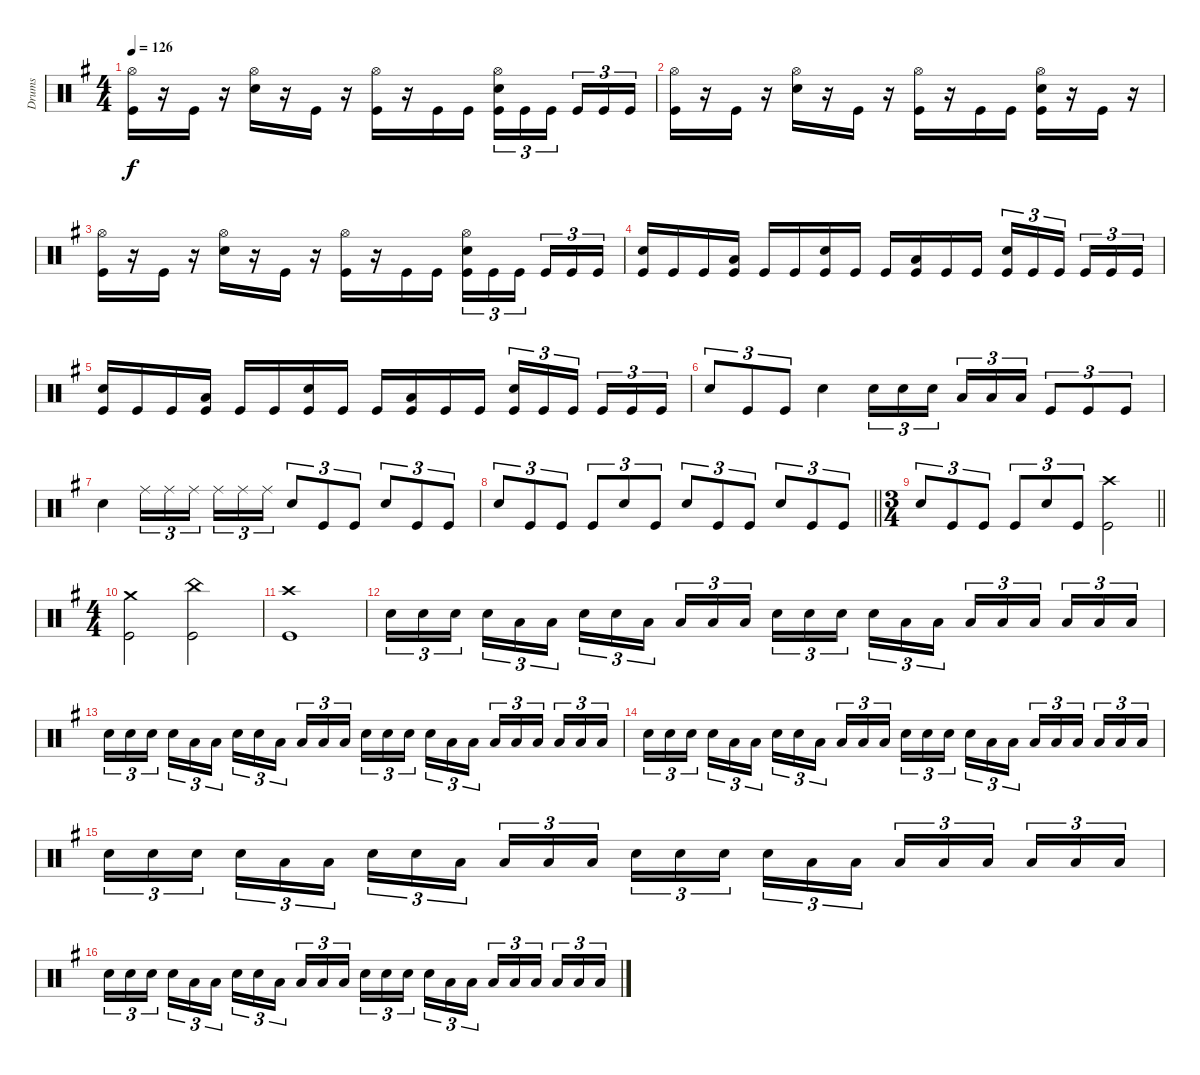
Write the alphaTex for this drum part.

\track ("Drums" "Drums") {instrument percussion}
\staff {score}
\articulation defaults
\ts (4 4)
\tempo 126
\clef neutral
\ks eminor
("Hi-Hat (open)" "Kick (hit)").16{dy f} r.16 "Kick (hit)".16 r.16 ("Hi-Hat (open)" "Snare (hit) 2").16 r.16 "Kick (hit)".16 r.16 ("Hi-Hat (open)" "Kick (hit)").16 r.16 "Kick (hit)".16 "Kick (hit)".16 ("Hi-Hat (open)" "Snare (hit) 2" "Kick (hit)").16{tu (3 2)} "Kick (hit)".16{tu (3 2)} "Kick (hit)".16{tu (3 2) beam splitsecondary} "Kick (hit)".16{tu (3 2)} "Kick (hit)".16{tu (3 2)} "Kick (hit)".16{tu (3 2)} |
("Hi-Hat (open)" "Kick (hit)").16 r.16 "Kick (hit)".16 r.16 ("Hi-Hat (open)" "Snare (hit) 2").16 r.16 "Kick (hit)".16 r.16 ("Hi-Hat (open)" "Kick (hit)").16 r.16 "Kick (hit)".16 "Kick (hit)".16 ("Hi-Hat (open)" "Snare (hit) 2" "Kick (hit)").16 r.16 "Kick (hit)".16 r.16 |
("Hi-Hat (open)" "Kick (hit)").16 r.16 "Kick (hit)".16 r.16 ("Hi-Hat (open)" "Snare (hit) 2").16 r.16 "Kick (hit)".16 r.16 ("Hi-Hat (open)" "Kick (hit)").16 r.16 "Kick (hit)".16 "Kick (hit)".16 ("Hi-Hat (open)" "Snare (hit) 2" "Kick (hit)").16{tu (3 2)} "Kick (hit)".16{tu (3 2)} "Kick (hit)".16{tu (3 2) beam splitsecondary} "Kick (hit)".16{tu (3 2)} "Kick (hit)".16{tu (3 2)} "Kick (hit)".16{tu (3 2)} |
("Snare (hit) 2" "Kick (hit)").16 "Kick (hit)".16 "Kick (hit)".16 ("Low Floor Tom (hit)" "Kick (hit)").16 "Kick (hit)".16 "Kick (hit)".16 ("Snare (hit) 2" "Kick (hit)").16 "Kick (hit)".16 "Kick (hit)".16 ("Low Floor Tom (hit)" "Kick (hit)").16 "Kick (hit)".16 "Kick (hit)".16 ("Snare (hit) 2" "Kick (hit)").16{tu (3 2)} "Kick (hit)".16{tu (3 2)} "Kick (hit)".16{tu (3 2) beam splitsecondary} "Kick (hit)".16{tu (3 2)} "Kick (hit)".16{tu (3 2)} "Kick (hit)".16{tu (3 2)} |
("Snare (hit) 2" "Kick (hit)").16 "Kick (hit)".16 "Kick (hit)".16 ("Low Floor Tom (hit)" "Kick (hit)").16 "Kick (hit)".16 "Kick (hit)".16 ("Snare (hit) 2" "Kick (hit)").16 "Kick (hit)".16 "Kick (hit)".16 ("Low Floor Tom (hit)" "Kick (hit)").16 "Kick (hit)".16 "Kick (hit)".16 ("Snare (hit) 2" "Kick (hit)").16{tu (3 2)} "Kick (hit)".16{tu (3 2)} "Kick (hit)".16{tu (3 2) beam splitsecondary} "Kick (hit)".16{tu (3 2)} "Kick (hit)".16{tu (3 2)} "Kick (hit)".16{tu (3 2)} |
"Snare (hit) 2".8{tu (3 2)} "Kick (hit)".8{tu (3 2)} "Kick (hit)".8{tu (3 2)} "Snare (hit) 2".4 "Snare (hit) 2".16{tu (3 2)} "Snare (hit) 2".16{tu (3 2)} "Snare (hit) 2".16{tu (3 2) beam splitsecondary} "Low Floor Tom (hit)".16{tu (3 2)} "Low Floor Tom (hit)".16{tu (3 2)} "Low Tom (hit)".16{tu (3 2)} "Kick (hit)".8{tu (3 2)} "Kick (hit)".8{tu (3 2)} "Kick (hit)".8{tu (3 2)} |
"Snare (hit) 2".4 "Ride (middle)".16{tu (3 2)} "Ride (middle)".16{tu (3 2)} "Ride (middle)".16{tu (3 2) beam splitsecondary} "Ride (middle)".16{tu (3 2)} "Ride (middle)".16{tu (3 2)} "Ride (middle)".16{tu (3 2)} "Snare (hit) 2".8{tu (3 2)} "Kick (hit)".8{tu (3 2)} "Kick (hit)".8{tu (3 2)} "Snare (hit) 2".8{tu (3 2)} "Kick (hit)".8{tu (3 2)} "Kick (hit)".8{tu (3 2)} |
\barLineRight lightlight "Snare (hit) 2".8{tu (3 2)} "Kick (hit)".8{tu (3 2)} "Kick (hit)".8{tu (3 2)} "Kick (hit)".8{tu (3 2)} "Snare (hit) 2".8{tu (3 2)} "Kick (hit)".8{tu (3 2)} "Snare (hit) 2".8{tu (3 2)} "Kick (hit)".8{tu (3 2)} "Kick (hit)".8{tu (3 2)} "Snare (hit) 2".8{tu (3 2)} "Kick (hit)".8{tu (3 2)} "Kick (hit)".8{tu (3 2)}
|
\ts (3 4)
\barLineRight lightlight "Snare (hit) 2".8{tu (3 2)} "Kick (hit)".8{tu (3 2)} "Kick (hit)".8{tu (3 2)} "Kick (hit)".8{tu (3 2)} "Snare (hit) 2".8{tu (3 2)} "Kick (hit)".8{tu (3 2)}
("Crash high (hit)" "Kick (hit)").2 |
\ts (4 4)
("Crash medium (hit)" "Kick (hit)").2 ("China (hit)" "Kick (hit)").2 |
("Crash high (hit)" "Kick (hit)").1 |
"Snare (hit) 2".16{tu (3 2)} "Snare (hit) 2".16{tu (3 2)} "Snare (hit) 2".16{tu (3 2) beam splitsecondary} "Snare (hit) 2".16{tu (3 2)} "Low Floor Tom (hit)".16{tu (3 2)} "Low Floor Tom (hit)".16{tu (3 2)} "Snare (hit) 2".16{tu (3 2)} "Snare (hit) 2".16{tu (3 2)} "Low Tom (hit)".16{tu (3 2) beam splitsecondary} "Low Tom (hit)".16{tu (3 2)} "Low Tom (hit)".16{tu (3 2)} "Low Floor Tom (hit)".16{tu (3 2)} "Snare (hit) 2".16{tu (3 2)} "Snare (hit) 2".16{tu (3 2)} "Snare (hit) 2".16{tu (3 2) beam splitsecondary} "Snare (hit) 2".16{tu (3 2)} "Low Tom (hit)".16{tu (3 2)} "Low Tom (hit)".16{tu (3 2)} "Low Floor Tom (hit)".16{tu (3 2)} "Low Floor Tom (hit)".16{tu (3 2)} "Low Floor Tom (hit)".16{tu (3 2) beam splitsecondary} "Low Floor Tom (hit)".16{tu (3 2)} "Low Floor Tom (hit)".16{tu (3 2)} "Low Floor Tom (hit)".16{tu (3 2)} |
"Snare (hit) 2".16{tu (3 2)} "Snare (hit) 2".16{tu (3 2)} "Snare (hit) 2".16{tu (3 2) beam splitsecondary} "Snare (hit) 2".16{tu (3 2)} "Low Floor Tom (hit)".16{tu (3 2)} "Low Floor Tom (hit)".16{tu (3 2)} "Snare (hit) 2".16{tu (3 2)} "Snare (hit) 2".16{tu (3 2)} "Low Tom (hit)".16{tu (3 2) beam splitsecondary} "Low Tom (hit)".16{tu (3 2)} "Low Tom (hit)".16{tu (3 2)} "Low Floor Tom (hit)".16{tu (3 2)} "Snare (hit) 2".16{tu (3 2)} "Snare (hit) 2".16{tu (3 2)} "Snare (hit) 2".16{tu (3 2) beam splitsecondary} "Snare (hit) 2".16{tu (3 2)} "Low Tom (hit)".16{tu (3 2)} "Low Tom (hit)".16{tu (3 2)} "Low Floor Tom (hit)".16{tu (3 2)} "Low Floor Tom (hit)".16{tu (3 2)} "Low Floor Tom (hit)".16{tu (3 2) beam splitsecondary} "Low Floor Tom (hit)".16{tu (3 2)} "Low Floor Tom (hit)".16{tu (3 2)} "Low Floor Tom (hit)".16{tu (3 2)} |
"Snare (hit) 2".16{tu (3 2)} "Snare (hit) 2".16{tu (3 2)} "Snare (hit) 2".16{tu (3 2) beam splitsecondary} "Snare (hit) 2".16{tu (3 2)} "Low Floor Tom (hit)".16{tu (3 2)} "Low Floor Tom (hit)".16{tu (3 2)} "Snare (hit) 2".16{tu (3 2)} "Snare (hit) 2".16{tu (3 2)} "Low Tom (hit)".16{tu (3 2) beam splitsecondary} "Low Tom (hit)".16{tu (3 2)} "Low Tom (hit)".16{tu (3 2)} "Low Floor Tom (hit)".16{tu (3 2)} "Snare (hit) 2".16{tu (3 2)} "Snare (hit) 2".16{tu (3 2)} "Snare (hit) 2".16{tu (3 2) beam splitsecondary} "Snare (hit) 2".16{tu (3 2)} "Low Tom (hit)".16{tu (3 2)} "Low Tom (hit)".16{tu (3 2)} "Low Floor Tom (hit)".16{tu (3 2)} "Low Floor Tom (hit)".16{tu (3 2)} "Low Floor Tom (hit)".16{tu (3 2) beam splitsecondary} "Low Floor Tom (hit)".16{tu (3 2)} "Low Floor Tom (hit)".16{tu (3 2)} "Low Floor Tom (hit)".16{tu (3 2)} |
"Snare (hit) 2".16{tu (3 2)} "Snare (hit) 2".16{tu (3 2)} "Snare (hit) 2".16{tu (3 2) beam splitsecondary} "Snare (hit) 2".16{tu (3 2)} "Low Floor Tom (hit)".16{tu (3 2)} "Low Floor Tom (hit)".16{tu (3 2)} "Snare (hit) 2".16{tu (3 2)} "Snare (hit) 2".16{tu (3 2)} "Low Tom (hit)".16{tu (3 2) beam splitsecondary} "Low Tom (hit)".16{tu (3 2)} "Low Tom (hit)".16{tu (3 2)} "Low Floor Tom (hit)".16{tu (3 2)} "Snare (hit) 2".16{tu (3 2)} "Snare (hit) 2".16{tu (3 2)} "Snare (hit) 2".16{tu (3 2) beam splitsecondary} "Snare (hit) 2".16{tu (3 2)} "Low Tom (hit)".16{tu (3 2)} "Low Tom (hit)".16{tu (3 2)} "Low Floor Tom (hit)".16{tu (3 2)} "Low Floor Tom (hit)".16{tu (3 2)} "Low Floor Tom (hit)".16{tu (3 2) beam splitsecondary} "Low Floor Tom (hit)".16{tu (3 2)} "Low Floor Tom (hit)".16{tu (3 2)} "Low Floor Tom (hit)".16{tu (3 2)} |
"Snare (hit) 2".16{tu (3 2)} "Snare (hit) 2".16{tu (3 2)} "Snare (hit) 2".16{tu (3 2) beam splitsecondary} "Snare (hit) 2".16{tu (3 2)} "Low Floor Tom (hit)".16{tu (3 2)} "Low Floor Tom (hit)".16{tu (3 2)} "Snare (hit) 2".16{tu (3 2)} "Snare (hit) 2".16{tu (3 2)} "Low Tom (hit)".16{tu (3 2) beam splitsecondary} "Low Tom (hit)".16{tu (3 2)} "Low Tom (hit)".16{tu (3 2)} "Low Floor Tom (hit)".16{tu (3 2)} "Snare (hit) 2".16{tu (3 2)} "Snare (hit) 2".16{tu (3 2)} "Snare (hit) 2".16{tu (3 2) beam splitsecondary} "Snare (hit) 2".16{tu (3 2)} "Low Tom (hit)".16{tu (3 2)} "Low Tom (hit)".16{tu (3 2)} "Low Floor Tom (hit)".16{tu (3 2)} "Low Floor Tom (hit)".16{tu (3 2)} "Low Floor Tom (hit)".16{tu (3 2) beam splitsecondary} "Low Floor Tom (hit)".16{tu (3 2)} "Low Floor Tom (hit)".16{tu (3 2)} "Low Floor Tom (hit)".16{tu (3 2)}
